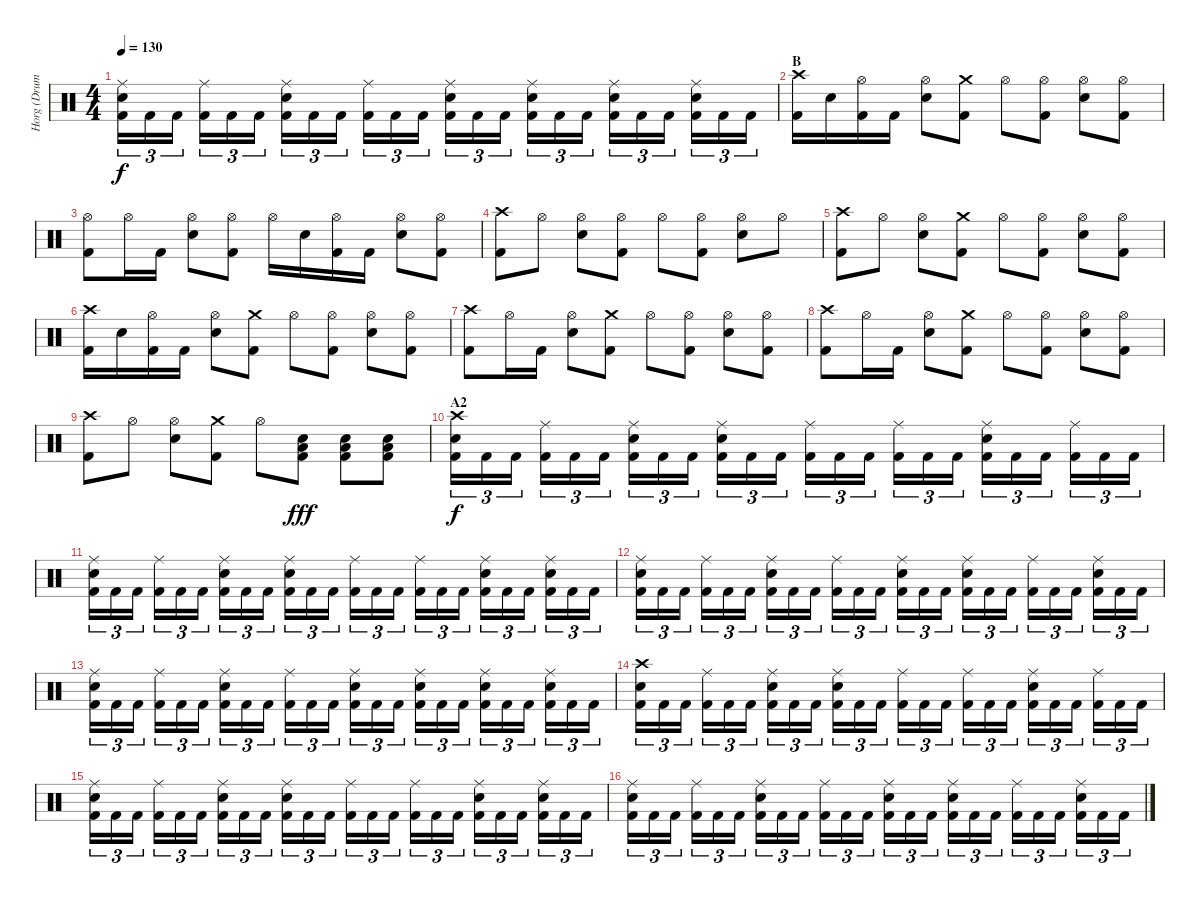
\track ("Horg (Drums)" "Horg (Drum") {instrument percussion}
\staff {score}
\articulation defaults
\ts (4 4)
\tempo 130
\clef neutral
\ks c
("Ride (middle)" "Electric Snare (hit)" "Kick (hit) 2").16{tu (3 2) dy f} "Kick (hit) 2".16{tu (3 2)} "Kick (hit) 2".16{tu (3 2)} ("Ride (middle)" "Kick (hit) 2").16{tu (3 2)} "Kick (hit) 2".16{tu (3 2)} "Kick (hit) 2".16{tu (3 2)} ("Ride (middle)" "Electric Snare (hit)" "Kick (hit) 2").16{tu (3 2)} "Kick (hit) 2".16{tu (3 2)} "Kick (hit) 2".16{tu (3 2)} ("Ride (middle)" "Kick (hit) 2").16{tu (3 2)} "Kick (hit) 2".16{tu (3 2)} "Kick (hit) 2".16{tu (3 2)} ("Ride (middle)" "Electric Snare (hit)" "Kick (hit) 2").16{tu (3 2)} "Kick (hit) 2".16{tu (3 2)} "Kick (hit) 2".16{tu (3 2)} ("Ride (middle)" "Electric Snare (hit)" "Kick (hit) 2").16{tu (3 2)} "Kick (hit) 2".16{tu (3 2)} "Kick (hit) 2".16{tu (3 2)} ("Ride (middle)" "Electric Snare (hit)" "Kick (hit) 2").16{tu (3 2)} "Kick (hit) 2".16{tu (3 2)} "Kick (hit) 2".16{tu (3 2)} ("Ride (middle)" "Electric Snare (hit)" "Kick (hit) 2").16{tu (3 2)} "Kick (hit) 2".16{tu (3 2)} "Kick (hit) 2".16{tu (3 2)} |
\section ("" "B")
("Crash high (hit)" "Kick (hit) 2").16 "Electric Snare (hit)".16 ("Hi-Hat (open)" "Kick (hit) 2").16 "Kick (hit) 2".16 ("Hi-Hat (open)" "Electric Snare (hit)").8 ("Crash medium (hit)" "Kick (hit) 2").8 "Hi-Hat (open)".8 ("Hi-Hat (open)" "Kick (hit) 2").8 ("Hi-Hat (open)" "Electric Snare (hit)").8 ("Hi-Hat (open)" "Kick (hit) 2").8 |
("Hi-Hat (open)" "Kick (hit) 2").8 "Hi-Hat (open)".16 "Kick (hit) 2".16 ("Hi-Hat (open)" "Electric Snare (hit)").8 ("Hi-Hat (open)" "Kick (hit) 2").8 "Hi-Hat (open)".16 "Electric Snare (hit)".16 ("Hi-Hat (open)" "Kick (hit) 2").16 "Kick (hit) 2".16 ("Hi-Hat (open)" "Electric Snare (hit)").8 ("Hi-Hat (open)" "Kick (hit) 2").8 |
("Crash high (hit)" "Kick (hit) 2").8 "Hi-Hat (open)".8 ("Hi-Hat (open)" "Electric Snare (hit)").8 ("Hi-Hat (open)" "Kick (hit) 2").8 "Hi-Hat (open)".8 ("Hi-Hat (open)" "Kick (hit) 2").8 ("Hi-Hat (open)" "Electric Snare (hit)").8 "Hi-Hat (open)".8 |
("Crash high (hit)" "Kick (hit) 2").8 "Hi-Hat (open)".8 ("Hi-Hat (open)" "Electric Snare (hit)").8 ("Crash medium (hit)" "Kick (hit) 2").8 "Hi-Hat (open)".8 ("Hi-Hat (open)" "Kick (hit) 2").8 ("Hi-Hat (open)" "Electric Snare (hit)").8 ("Hi-Hat (open)" "Kick (hit) 2").8 |
("Crash high (hit)" "Kick (hit) 2").16 "Electric Snare (hit)".16 ("Hi-Hat (open)" "Kick (hit) 2").16 "Kick (hit) 2".16 ("Hi-Hat (open)" "Electric Snare (hit)").8 ("Crash medium (hit)" "Kick (hit) 2").8 "Hi-Hat (open)".8 ("Hi-Hat (open)" "Kick (hit) 2").8 ("Hi-Hat (open)" "Electric Snare (hit)").8 ("Hi-Hat (open)" "Kick (hit) 2").8 |
("Crash high (hit)" "Kick (hit) 2").8 "Hi-Hat (open)".16 "Kick (hit) 2".16 ("Hi-Hat (open)" "Electric Snare (hit)").8 ("Crash medium (hit)" "Kick (hit) 2").8 "Hi-Hat (open)".8 ("Hi-Hat (open)" "Kick (hit) 2").8 ("Hi-Hat (open)" "Electric Snare (hit)").8 ("Hi-Hat (open)" "Kick (hit) 2").8 |
("Crash high (hit)" "Kick (hit) 2").8 "Hi-Hat (open)".16 "Kick (hit) 2".16 ("Hi-Hat (open)" "Electric Snare (hit)").8 ("Crash medium (hit)" "Kick (hit) 2").8 "Hi-Hat (open)".8 ("Hi-Hat (open)" "Kick (hit) 2").8 ("Hi-Hat (open)" "Electric Snare (hit)").8 ("Hi-Hat (open)" "Kick (hit) 2").8 |
("Crash high (hit)" "Kick (hit) 2").8 "Hi-Hat (open)".8 ("Hi-Hat (open)" "Electric Snare (hit)").8 ("Crash medium (hit)" "Kick (hit) 2").8 "Hi-Hat (open)".8 ("Low Floor Tom (hit)" "Electric Snare (hit)" "Kick (hit) 2").8{dy fff} ("Low Floor Tom (hit)" "Electric Snare (hit)" "Kick (hit) 2").8 ("Low Floor Tom (hit)" "Electric Snare (hit)" "Kick (hit) 2").8 |
\section ("" "A2")
("Crash high (hit)" "Electric Snare (hit)" "Kick (hit) 2").16{tu (3 2) dy f} "Kick (hit) 2".16{tu (3 2)} "Kick (hit) 2".16{tu (3 2)} ("Ride (middle)" "Kick (hit) 2").16{tu (3 2)} "Kick (hit) 2".16{tu (3 2)} "Kick (hit) 2".16{tu (3 2)} ("Ride (middle)" "Electric Snare (hit)" "Kick (hit) 2").16{tu (3 2)} "Kick (hit) 2".16{tu (3 2)} "Kick (hit) 2".16{tu (3 2)} ("Ride (middle)" "Electric Snare (hit)" "Kick (hit) 2").16{tu (3 2)} "Kick (hit) 2".16{tu (3 2)} "Kick (hit) 2".16{tu (3 2)} ("Ride (middle)" "Kick (hit) 2").16{tu (3 2)} "Kick (hit) 2".16{tu (3 2)} "Kick (hit) 2".16{tu (3 2)} ("Ride (middle)" "Kick (hit) 2").16{tu (3 2)} "Kick (hit) 2".16{tu (3 2)} "Kick (hit) 2".16{tu (3 2)} ("Ride (middle)" "Electric Snare (hit)" "Kick (hit) 2").16{tu (3 2)} "Kick (hit) 2".16{tu (3 2)} "Kick (hit) 2".16{tu (3 2)} ("Ride (middle)" "Kick (hit) 2").16{tu (3 2)} "Kick (hit) 2".16{tu (3 2)} "Kick (hit) 2".16{tu (3 2)} |
("Ride (middle)" "Electric Snare (hit)" "Kick (hit) 2").16{tu (3 2)} "Kick (hit) 2".16{tu (3 2)} "Kick (hit) 2".16{tu (3 2)} ("Ride (middle)" "Kick (hit) 2").16{tu (3 2)} "Kick (hit) 2".16{tu (3 2)} "Kick (hit) 2".16{tu (3 2)} ("Ride (middle)" "Electric Snare (hit)" "Kick (hit) 2").16{tu (3 2)} "Kick (hit) 2".16{tu (3 2)} "Kick (hit) 2".16{tu (3 2)} ("Ride (middle)" "Electric Snare (hit)" "Kick (hit) 2").16{tu (3 2)} "Kick (hit) 2".16{tu (3 2)} "Kick (hit) 2".16{tu (3 2)} ("Ride (middle)" "Kick (hit) 2").16{tu (3 2)} "Kick (hit) 2".16{tu (3 2)} "Kick (hit) 2".16{tu (3 2)} ("Ride (middle)" "Kick (hit) 2").16{tu (3 2)} "Kick (hit) 2".16{tu (3 2)} "Kick (hit) 2".16{tu (3 2)} ("Ride (middle)" "Electric Snare (hit)" "Kick (hit) 2").16{tu (3 2)} "Kick (hit) 2".16{tu (3 2)} "Kick (hit) 2".16{tu (3 2)} ("Ride (middle)" "Electric Snare (hit)" "Kick (hit) 2").16{tu (3 2)} "Kick (hit) 2".16{tu (3 2)} "Kick (hit) 2".16{tu (3 2)} |
("Ride (middle)" "Electric Snare (hit)" "Kick (hit) 2").16{tu (3 2)} "Kick (hit) 2".16{tu (3 2)} "Kick (hit) 2".16{tu (3 2)} ("Ride (middle)" "Kick (hit) 2").16{tu (3 2)} "Kick (hit) 2".16{tu (3 2)} "Kick (hit) 2".16{tu (3 2)} ("Ride (middle)" "Electric Snare (hit)" "Kick (hit) 2").16{tu (3 2)} "Kick (hit) 2".16{tu (3 2)} "Kick (hit) 2".16{tu (3 2)} ("Ride (middle)" "Kick (hit) 2").16{tu (3 2)} "Kick (hit) 2".16{tu (3 2)} "Kick (hit) 2".16{tu (3 2)} ("Ride (middle)" "Electric Snare (hit)" "Kick (hit) 2").16{tu (3 2)} "Kick (hit) 2".16{tu (3 2)} "Kick (hit) 2".16{tu (3 2)} ("Ride (middle)" "Electric Snare (hit)" "Kick (hit) 2").16{tu (3 2)} "Kick (hit) 2".16{tu (3 2)} "Kick (hit) 2".16{tu (3 2)} ("Ride (middle)" "Kick (hit) 2").16{tu (3 2)} "Kick (hit) 2".16{tu (3 2)} "Kick (hit) 2".16{tu (3 2)} ("Ride (middle)" "Electric Snare (hit)" "Kick (hit) 2").16{tu (3 2)} "Kick (hit) 2".16{tu (3 2)} "Kick (hit) 2".16{tu (3 2)} |
("Ride (middle)" "Electric Snare (hit)" "Kick (hit) 2").16{tu (3 2)} "Kick (hit) 2".16{tu (3 2)} "Kick (hit) 2".16{tu (3 2)} ("Ride (middle)" "Kick (hit) 2").16{tu (3 2)} "Kick (hit) 2".16{tu (3 2)} "Kick (hit) 2".16{tu (3 2)} ("Ride (middle)" "Electric Snare (hit)" "Kick (hit) 2").16{tu (3 2)} "Kick (hit) 2".16{tu (3 2)} "Kick (hit) 2".16{tu (3 2)} ("Ride (middle)" "Kick (hit) 2").16{tu (3 2)} "Kick (hit) 2".16{tu (3 2)} "Kick (hit) 2".16{tu (3 2)} ("Ride (middle)" "Electric Snare (hit)" "Kick (hit) 2").16{tu (3 2)} "Kick (hit) 2".16{tu (3 2)} "Kick (hit) 2".16{tu (3 2)} ("Ride (middle)" "Electric Snare (hit)" "Kick (hit) 2").16{tu (3 2)} "Kick (hit) 2".16{tu (3 2)} "Kick (hit) 2".16{tu (3 2)} ("Ride (middle)" "Electric Snare (hit)" "Kick (hit) 2").16{tu (3 2)} "Kick (hit) 2".16{tu (3 2)} "Kick (hit) 2".16{tu (3 2)} ("Ride (middle)" "Electric Snare (hit)" "Kick (hit) 2").16{tu (3 2)} "Kick (hit) 2".16{tu (3 2)} "Kick (hit) 2".16{tu (3 2)} |
("Crash high (hit)" "Electric Snare (hit)" "Kick (hit) 2").16{tu (3 2)} "Kick (hit) 2".16{tu (3 2)} "Kick (hit) 2".16{tu (3 2)} ("Ride (middle)" "Kick (hit) 2").16{tu (3 2)} "Kick (hit) 2".16{tu (3 2)} "Kick (hit) 2".16{tu (3 2)} ("Ride (middle)" "Electric Snare (hit)" "Kick (hit) 2").16{tu (3 2)} "Kick (hit) 2".16{tu (3 2)} "Kick (hit) 2".16{tu (3 2)} ("Ride (middle)" "Electric Snare (hit)" "Kick (hit) 2").16{tu (3 2)} "Kick (hit) 2".16{tu (3 2)} "Kick (hit) 2".16{tu (3 2)} ("Ride (middle)" "Kick (hit) 2").16{tu (3 2)} "Kick (hit) 2".16{tu (3 2)} "Kick (hit) 2".16{tu (3 2)} ("Ride (middle)" "Kick (hit) 2").16{tu (3 2)} "Kick (hit) 2".16{tu (3 2)} "Kick (hit) 2".16{tu (3 2)} ("Ride (middle)" "Electric Snare (hit)" "Kick (hit) 2").16{tu (3 2)} "Kick (hit) 2".16{tu (3 2)} "Kick (hit) 2".16{tu (3 2)} ("Ride (middle)" "Kick (hit) 2").16{tu (3 2)} "Kick (hit) 2".16{tu (3 2)} "Kick (hit) 2".16{tu (3 2)} |
("Ride (middle)" "Electric Snare (hit)" "Kick (hit) 2").16{tu (3 2)} "Kick (hit) 2".16{tu (3 2)} "Kick (hit) 2".16{tu (3 2)} ("Ride (middle)" "Kick (hit) 2").16{tu (3 2)} "Kick (hit) 2".16{tu (3 2)} "Kick (hit) 2".16{tu (3 2)} ("Ride (middle)" "Electric Snare (hit)" "Kick (hit) 2").16{tu (3 2)} "Kick (hit) 2".16{tu (3 2)} "Kick (hit) 2".16{tu (3 2)} ("Ride (middle)" "Electric Snare (hit)" "Kick (hit) 2").16{tu (3 2)} "Kick (hit) 2".16{tu (3 2)} "Kick (hit) 2".16{tu (3 2)} ("Ride (middle)" "Kick (hit) 2").16{tu (3 2)} "Kick (hit) 2".16{tu (3 2)} "Kick (hit) 2".16{tu (3 2)} ("Ride (middle)" "Kick (hit) 2").16{tu (3 2)} "Kick (hit) 2".16{tu (3 2)} "Kick (hit) 2".16{tu (3 2)} ("Ride (middle)" "Electric Snare (hit)" "Kick (hit) 2").16{tu (3 2)} "Kick (hit) 2".16{tu (3 2)} "Kick (hit) 2".16{tu (3 2)} ("Ride (middle)" "Electric Snare (hit)" "Kick (hit) 2").16{tu (3 2)} "Kick (hit) 2".16{tu (3 2)} "Kick (hit) 2".16{tu (3 2)} |
("Ride (middle)" "Electric Snare (hit)" "Kick (hit) 2").16{tu (3 2)} "Kick (hit) 2".16{tu (3 2)} "Kick (hit) 2".16{tu (3 2)} ("Ride (middle)" "Kick (hit) 2").16{tu (3 2)} "Kick (hit) 2".16{tu (3 2)} "Kick (hit) 2".16{tu (3 2)} ("Ride (middle)" "Electric Snare (hit)" "Kick (hit) 2").16{tu (3 2)} "Kick (hit) 2".16{tu (3 2)} "Kick (hit) 2".16{tu (3 2)} ("Ride (middle)" "Kick (hit) 2").16{tu (3 2)} "Kick (hit) 2".16{tu (3 2)} "Kick (hit) 2".16{tu (3 2)} ("Ride (middle)" "Electric Snare (hit)" "Kick (hit) 2").16{tu (3 2)} "Kick (hit) 2".16{tu (3 2)} "Kick (hit) 2".16{tu (3 2)} ("Ride (middle)" "Electric Snare (hit)" "Kick (hit) 2").16{tu (3 2)} "Kick (hit) 2".16{tu (3 2)} "Kick (hit) 2".16{tu (3 2)} ("Ride (middle)" "Kick (hit) 2").16{tu (3 2)} "Kick (hit) 2".16{tu (3 2)} "Kick (hit) 2".16{tu (3 2)} ("Ride (middle)" "Electric Snare (hit)" "Kick (hit) 2").16{tu (3 2)} "Kick (hit) 2".16{tu (3 2)} "Kick (hit) 2".16{tu (3 2)}
